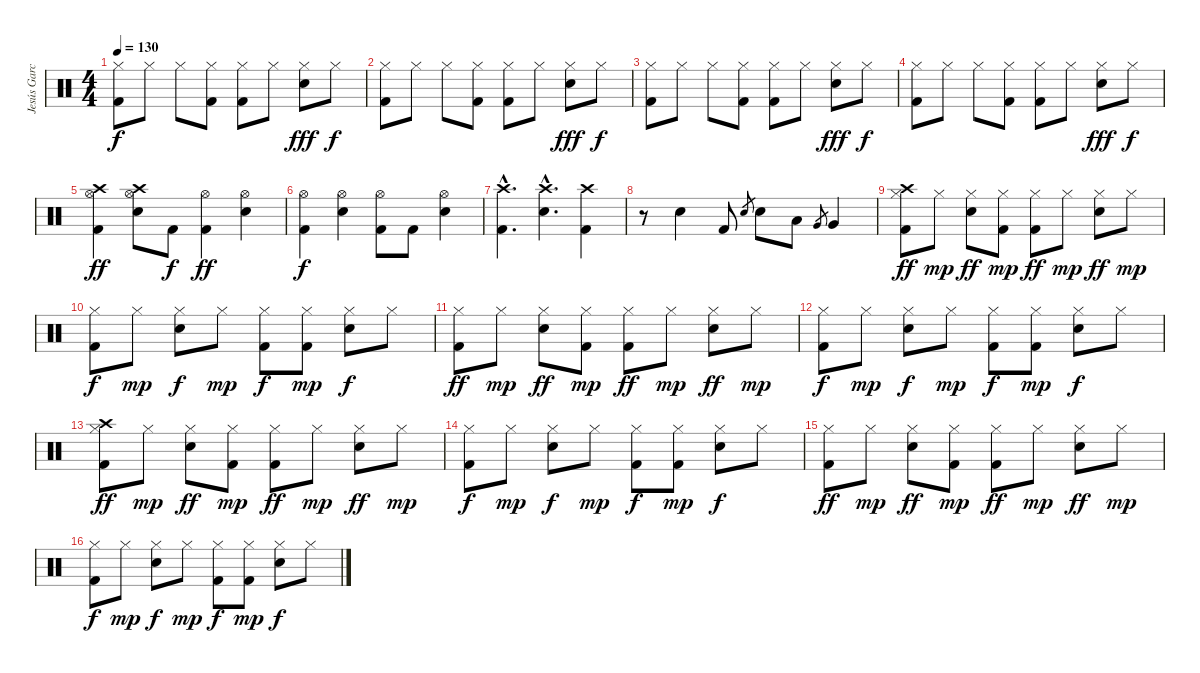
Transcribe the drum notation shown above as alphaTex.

\track ("Jesús García (batería)" "Jesús Garc") {instrument percussion}
\staff {score}
\articulation defaults
\ts (4 4)
\tempo 130
\clef neutral
\ks c
("Hi-Hat (closed)" "Kick (hit) 2").8{dy f} "Hi-Hat (closed)".8 "Hi-Hat (closed)".8 ("Kick (hit) 2" "Hi-Hat (closed)").8 ("Kick (hit) 2" "Hi-Hat (closed)").8 "Hi-Hat (closed)".8 ("Hi-Hat (closed)" "Electric Snare (hit)").8{dy fff} "Hi-Hat (closed)".8{dy f} |
("Hi-Hat (closed)" "Kick (hit) 2").8 "Hi-Hat (closed)".8 "Hi-Hat (closed)".8 ("Kick (hit) 2" "Hi-Hat (closed)").8 ("Kick (hit) 2" "Hi-Hat (closed)").8 "Hi-Hat (closed)".8 ("Hi-Hat (closed)" "Electric Snare (hit)").8{dy fff} "Hi-Hat (closed)".8{dy f} |
("Hi-Hat (closed)" "Kick (hit) 2").8 "Hi-Hat (closed)".8 "Hi-Hat (closed)".8 ("Kick (hit) 2" "Hi-Hat (closed)").8 ("Kick (hit) 2" "Hi-Hat (closed)").8 "Hi-Hat (closed)".8 ("Hi-Hat (closed)" "Electric Snare (hit)").8{dy fff} "Hi-Hat (closed)".8{dy f} |
("Hi-Hat (closed)" "Kick (hit) 2").8 "Hi-Hat (closed)".8 "Hi-Hat (closed)".8 ("Kick (hit) 2" "Hi-Hat (closed)").8 ("Kick (hit) 2" "Hi-Hat (closed)").8 "Hi-Hat (closed)".8 ("Hi-Hat (closed)" "Electric Snare (hit)").8{dy fff} "Hi-Hat (closed)".8{dy f} |
("Crash high (hit)" "Hi-Hat (open)" "Kick (hit) 2").4{dy ff} ("Crash high (hit)" "Hi-Hat (open)" "Electric Snare (hit)").8 "Kick (hit) 2".8{dy f} ("Hi-Hat (open)" "Kick (hit) 2").4{dy ff} ("Hi-Hat (open)" "Electric Snare (hit)").4 |
("Hi-Hat (open)" "Kick (hit) 2").4{dy f} ("Hi-Hat (open)" "Electric Snare (hit)").4 ("Hi-Hat (open)" "Kick (hit) 2").8 "Kick (hit) 2".8 ("Hi-Hat (open)" "Electric Snare (hit)").4 |
("Kick (hit) 2"{hac} "Crash high (hit)"{hac}).4{d} ("Electric Snare (hit)"{hac} "Crash high (hit)"{hac}).4{d} ("Kick (hit) 2" "Crash high (hit)").4 |
r.8 "Electric Snare (hit)".4 "Kick (hit) 2".8 "Electric Snare (hit)".8{gr} "Electric Snare (hit)".8 "Low Tom (hit)".8 "Very Low Tom (hit)".8{gr} "Very Low Tom (hit)".4 |
("Crash high (hit)" "Hi-Hat (closed)" "Kick (hit) 2").8{dy ff} "Hi-Hat (closed)".8{dy mp} ("Hi-Hat (closed)" "Electric Snare (hit)").8{dy ff} ("Hi-Hat (closed)" "Kick (hit) 2").8{dy mp} ("Hi-Hat (closed)" "Kick (hit) 2").8{dy ff} "Hi-Hat (closed)".8{dy mp} ("Hi-Hat (closed)" "Electric Snare (hit)").8{dy ff} "Hi-Hat (closed)".8{dy mp} |
("Hi-Hat (closed)" "Kick (hit) 2").8{dy f} "Hi-Hat (closed)".8{dy mp} ("Hi-Hat (closed)" "Electric Snare (hit)").8{dy f} "Hi-Hat (closed)".8{dy mp} ("Hi-Hat (closed)" "Kick (hit) 2").8{dy f} ("Hi-Hat (closed)" "Kick (hit) 2").8{dy mp} ("Hi-Hat (closed)" "Electric Snare (hit)").8{dy f} "Hi-Hat (closed)".8 |
("Hi-Hat (closed)" "Kick (hit) 2").8{dy ff} "Hi-Hat (closed)".8{dy mp} ("Hi-Hat (closed)" "Electric Snare (hit)").8{dy ff} ("Hi-Hat (closed)" "Kick (hit) 2").8{dy mp} ("Hi-Hat (closed)" "Kick (hit) 2").8{dy ff} "Hi-Hat (closed)".8{dy mp} ("Hi-Hat (closed)" "Electric Snare (hit)").8{dy ff} "Hi-Hat (closed)".8{dy mp} |
("Hi-Hat (closed)" "Kick (hit) 2").8{dy f} "Hi-Hat (closed)".8{dy mp} ("Hi-Hat (closed)" "Electric Snare (hit)").8{dy f} "Hi-Hat (closed)".8{dy mp} ("Hi-Hat (closed)" "Kick (hit) 2").8{dy f} ("Hi-Hat (closed)" "Kick (hit) 2").8{dy mp} ("Hi-Hat (closed)" "Electric Snare (hit)").8{dy f} "Hi-Hat (closed)".8 |
("Crash high (hit)" "Hi-Hat (closed)" "Kick (hit) 2").8{dy ff} "Hi-Hat (closed)".8{dy mp} ("Hi-Hat (closed)" "Electric Snare (hit)").8{dy ff} ("Hi-Hat (closed)" "Kick (hit) 2").8{dy mp} ("Hi-Hat (closed)" "Kick (hit) 2").8{dy ff} "Hi-Hat (closed)".8{dy mp} ("Hi-Hat (closed)" "Electric Snare (hit)").8{dy ff} "Hi-Hat (closed)".8{dy mp} |
("Hi-Hat (closed)" "Kick (hit) 2").8{dy f} "Hi-Hat (closed)".8{dy mp} ("Hi-Hat (closed)" "Electric Snare (hit)").8{dy f} "Hi-Hat (closed)".8{dy mp} ("Hi-Hat (closed)" "Kick (hit) 2").8{dy f} ("Hi-Hat (closed)" "Kick (hit) 2").8{dy mp} ("Hi-Hat (closed)" "Electric Snare (hit)").8{dy f} "Hi-Hat (closed)".8 |
("Hi-Hat (closed)" "Kick (hit) 2").8{dy ff} "Hi-Hat (closed)".8{dy mp} ("Hi-Hat (closed)" "Electric Snare (hit)").8{dy ff} ("Hi-Hat (closed)" "Kick (hit) 2").8{dy mp} ("Hi-Hat (closed)" "Kick (hit) 2").8{dy ff} "Hi-Hat (closed)".8{dy mp} ("Hi-Hat (closed)" "Electric Snare (hit)").8{dy ff} "Hi-Hat (closed)".8{dy mp} |
("Hi-Hat (closed)" "Kick (hit) 2").8{dy f} "Hi-Hat (closed)".8{dy mp} ("Hi-Hat (closed)" "Electric Snare (hit)").8{dy f} "Hi-Hat (closed)".8{dy mp} ("Hi-Hat (closed)" "Kick (hit) 2").8{dy f} ("Hi-Hat (closed)" "Kick (hit) 2").8{dy mp} ("Hi-Hat (closed)" "Electric Snare (hit)").8{dy f} "Hi-Hat (closed)".8
